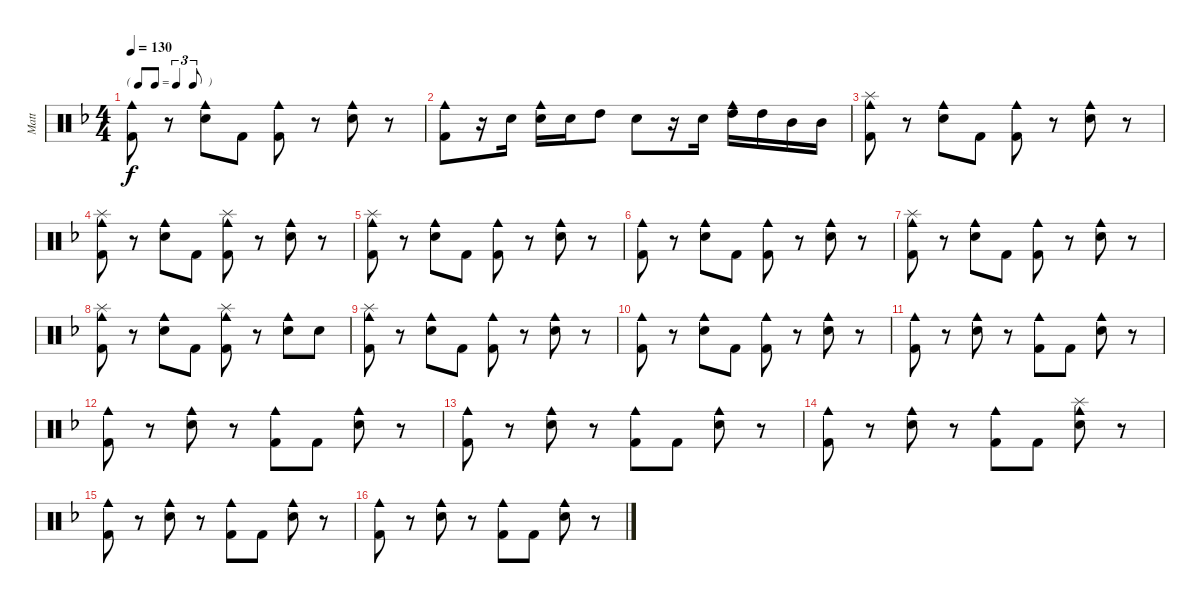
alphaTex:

\track ("Matt" "Matt") {instrument percussion}
\staff {score}
\articulation defaults
\ts (4 4)
\tf triplet8th
\tempo 130
\clef neutral
\ks f
("Cowbell medium (hit)" "Kick (hit) 2").8{dy f} r.8 ("Cowbell medium (hit)" "Snare (hit) 2").8 "Kick (hit) 2".8 ("Cowbell medium (hit)" "Kick (hit) 2").8 r.8 ("Cowbell medium (hit)" "Snare (hit) 2").8 r.8 |
("Cowbell medium (hit)" "Kick (hit) 2").8 r.16 "Snare (hit) 2".16 ("Cowbell medium (hit)" "Snare (hit) 2").16 "Snare (hit) 2".16 "High Tom (hit)".8 "Snare (hit) 2".8 r.16 "Snare (hit) 2".16 ("Cowbell medium (hit)" "High Tom (hit)").16 "High Tom (hit)".16 "Mid Tom (hit)".16 "Mid Tom (hit)".16 |
("Cowbell medium (hit)" "Kick (hit) 2" "Splash (hit)").8 r.8 ("Cowbell medium (hit)" "Snare (hit) 2").8 "Kick (hit) 2".8 ("Cowbell medium (hit)" "Kick (hit) 2").8 r.8 ("Cowbell medium (hit)" "Snare (hit) 2").8 r.8 |
("Cowbell medium (hit)" "Kick (hit) 2" "Splash (hit)").8 r.8 ("Cowbell medium (hit)" "Snare (hit) 2").8 "Kick (hit) 2".8 ("Cowbell medium (hit)" "Kick (hit) 2" "Splash (hit)").8 r.8 ("Cowbell medium (hit)" "Snare (hit) 2").8 r.8 |
("Cowbell medium (hit)" "Kick (hit) 2" "Splash (hit)").8 r.8 ("Cowbell medium (hit)" "Snare (hit) 2").8 "Kick (hit) 2".8 ("Cowbell medium (hit)" "Kick (hit) 2").8 r.8 ("Cowbell medium (hit)" "Snare (hit) 2").8 r.8 |
("Cowbell medium (hit)" "Kick (hit) 2").8 r.8 ("Cowbell medium (hit)" "Snare (hit) 2").8 "Kick (hit) 2".8 ("Cowbell medium (hit)" "Kick (hit) 2").8 r.8 ("Cowbell medium (hit)" "Snare (hit) 2").8 r.8 |
("Cowbell medium (hit)" "Kick (hit) 2" "Splash (hit)").8 r.8 ("Cowbell medium (hit)" "Snare (hit) 2").8 "Kick (hit) 2".8 ("Cowbell medium (hit)" "Kick (hit) 2").8 r.8 ("Cowbell medium (hit)" "Snare (hit) 2").8 r.8 |
("Cowbell medium (hit)" "Kick (hit) 2" "Splash (hit)").8 r.8 ("Cowbell medium (hit)" "Snare (hit) 2").8 "Kick (hit) 2".8 ("Cowbell medium (hit)" "Kick (hit) 2" "Splash (hit)").8 r.8 ("Cowbell medium (hit)" "Snare (hit) 2").8 "Snare (hit) 2".8 |
("Cowbell medium (hit)" "Kick (hit) 2" "Splash (hit)").8 r.8 ("Cowbell medium (hit)" "Snare (hit) 2").8 "Kick (hit) 2".8 ("Cowbell medium (hit)" "Kick (hit) 2").8 r.8 ("Cowbell medium (hit)" "Snare (hit) 2").8 r.8 |
("Cowbell medium (hit)" "Kick (hit) 2").8 r.8 ("Cowbell medium (hit)" "Snare (hit) 2").8 "Kick (hit) 2".8 ("Cowbell medium (hit)" "Kick (hit) 2").8 r.8 ("Cowbell medium (hit)" "Snare (hit) 2").8 r.8 |
("Cowbell medium (hit)" "Kick (hit) 2").8 r.8 ("Cowbell medium (hit)" "Snare (hit) 2").8 r.8 ("Cowbell medium (hit)" "Kick (hit) 2").8 "Kick (hit) 2".8 ("Cowbell medium (hit)" "Snare (hit) 2").8 r.8 |
("Cowbell medium (hit)" "Kick (hit) 2").8 r.8 ("Cowbell medium (hit)" "Snare (hit) 2").8 r.8 ("Cowbell medium (hit)" "Kick (hit) 2").8 "Kick (hit) 2".8 ("Cowbell medium (hit)" "Snare (hit) 2").8 r.8 |
("Cowbell medium (hit)" "Kick (hit) 2").8 r.8 ("Cowbell medium (hit)" "Snare (hit) 2").8 r.8 ("Cowbell medium (hit)" "Kick (hit) 2").8 "Kick (hit) 2".8 ("Cowbell medium (hit)" "Snare (hit) 2").8 r.8 |
("Cowbell medium (hit)" "Kick (hit) 2").8 r.8 ("Cowbell medium (hit)" "Snare (hit) 2").8 r.8 ("Cowbell medium (hit)" "Kick (hit) 2").8 "Kick (hit) 2".8 ("Cowbell medium (hit)" "Snare (hit) 2" "Splash (hit)").8 r.8 |
("Cowbell medium (hit)" "Kick (hit) 2").8 r.8 ("Cowbell medium (hit)" "Snare (hit) 2").8 r.8 ("Cowbell medium (hit)" "Kick (hit) 2").8 "Kick (hit) 2".8 ("Cowbell medium (hit)" "Snare (hit) 2").8 r.8 |
("Cowbell medium (hit)" "Kick (hit) 2").8 r.8 ("Cowbell medium (hit)" "Snare (hit) 2").8 r.8 ("Cowbell medium (hit)" "Kick (hit) 2").8 "Kick (hit) 2".8 ("Cowbell medium (hit)" "Snare (hit) 2").8 r.8
